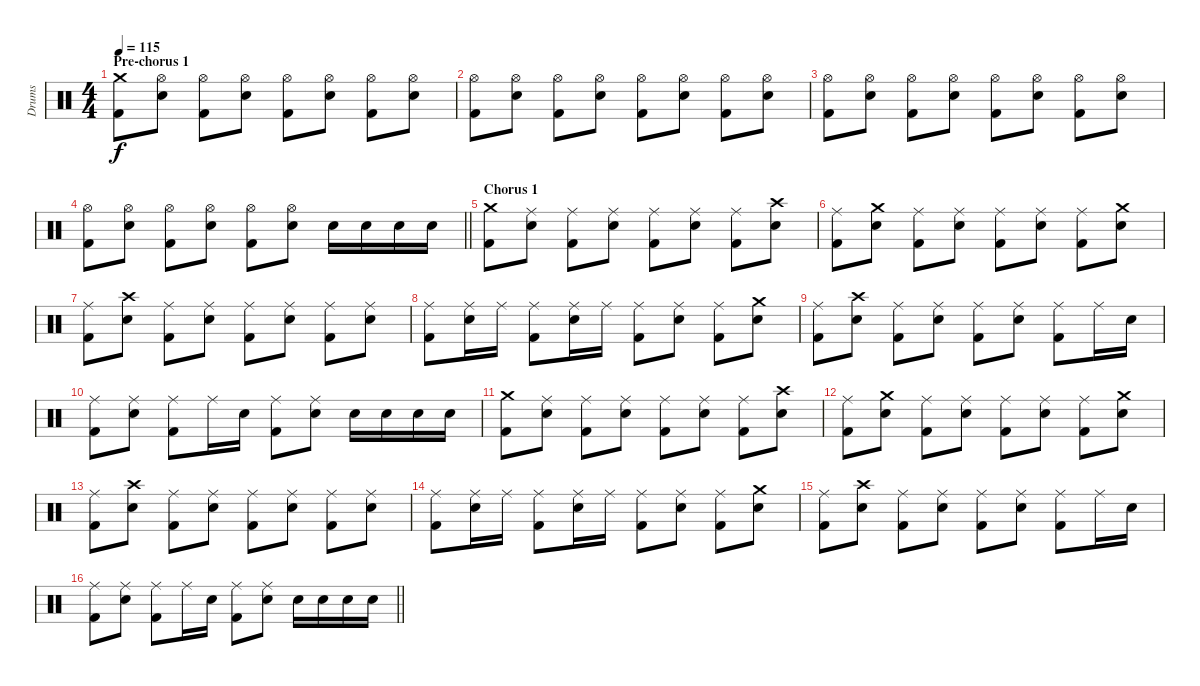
\track ("Drums" "Drums") {instrument percussion}
\staff {score}
\articulation defaults
\ts (4 4)
\section ("" "Pre-chorus 1")
\tempo 115
\clef neutral
\ks c
("Crash medium (hit)" "Kick (hit) 2").8{dy f} ("Hi-Hat (open)" "Snare (hit) 2").8 ("Hi-Hat (open)" "Kick (hit) 2").8 ("Hi-Hat (open)" "Snare (hit) 2").8 ("Hi-Hat (open)" "Kick (hit) 2").8 ("Hi-Hat (open)" "Snare (hit) 2").8 ("Hi-Hat (open)" "Kick (hit) 2").8 ("Hi-Hat (open)" "Snare (hit) 2").8 |
("Hi-Hat (open)" "Kick (hit) 2").8 ("Hi-Hat (open)" "Snare (hit) 2").8 ("Hi-Hat (open)" "Kick (hit) 2").8 ("Hi-Hat (open)" "Snare (hit) 2").8 ("Hi-Hat (open)" "Kick (hit) 2").8 ("Hi-Hat (open)" "Snare (hit) 2").8 ("Hi-Hat (open)" "Kick (hit) 2").8 ("Hi-Hat (open)" "Snare (hit) 2").8 |
("Hi-Hat (open)" "Kick (hit) 2").8 ("Hi-Hat (open)" "Snare (hit) 2").8 ("Hi-Hat (open)" "Kick (hit) 2").8 ("Hi-Hat (open)" "Snare (hit) 2").8 ("Hi-Hat (open)" "Kick (hit) 2").8 ("Hi-Hat (open)" "Snare (hit) 2").8 ("Hi-Hat (open)" "Kick (hit) 2").8 ("Hi-Hat (open)" "Snare (hit) 2").8 |
\barLineRight lightlight
("Hi-Hat (open)" "Kick (hit) 2").8 ("Hi-Hat (open)" "Snare (hit) 2").8 ("Hi-Hat (open)" "Kick (hit) 2").8 ("Hi-Hat (open)" "Snare (hit) 2").8 ("Hi-Hat (open)" "Kick (hit) 2").8 ("Hi-Hat (open)" "Snare (hit) 2").8 "Snare (hit) 2".16 "Snare (hit) 2".16 "Snare (hit) 2".16 "Snare (hit) 2".16 |
\section ("" "Chorus 1")
("Crash medium (hit)" "Kick (hit) 2").8 ("Ride (middle)" "Snare (hit) 2").8 ("Ride (middle)" "Kick (hit) 2").8 ("Ride (middle)" "Snare (hit) 2").8 ("Ride (middle)" "Kick (hit) 2").8 ("Ride (middle)" "Snare (hit) 2").8 ("Ride (middle)" "Kick (hit) 2").8 ("Crash high (hit)" "Snare (hit) 2").8 |
("Ride (middle)" "Kick (hit) 2").8 ("Crash medium (hit)" "Snare (hit) 2").8 ("Ride (middle)" "Kick (hit) 2").8 ("Ride (middle)" "Snare (hit) 2").8 ("Ride (middle)" "Kick (hit) 2").8 ("Ride (middle)" "Snare (hit) 2").8 ("Ride (middle)" "Kick (hit) 2").8 ("Crash medium (hit)" "Snare (hit) 2").8 |
("Ride (middle)" "Kick (hit) 2").8 ("Crash high (hit)" "Snare (hit) 2").8 ("Ride (middle)" "Kick (hit) 2").8 ("Ride (middle)" "Snare (hit) 2").8 ("Ride (middle)" "Kick (hit) 2").8 ("Ride (middle)" "Snare (hit) 2").8 ("Ride (middle)" "Kick (hit) 2").8 ("Ride (middle)" "Snare (hit) 2").8 |
("Ride (middle)" "Kick (hit) 2").8 ("Ride (middle)" "Snare (hit) 2").16 "Ride (middle)".16 ("Ride (middle)" "Kick (hit) 2").8 ("Ride (middle)" "Snare (hit) 2").16 "Ride (middle)".16 ("Ride (middle)" "Kick (hit) 2").8 ("Ride (middle)" "Snare (hit) 2").8 ("Ride (middle)" "Kick (hit) 2").8 ("Crash medium (hit)" "Snare (hit) 2").8 |
("Ride (middle)" "Kick (hit) 2").8 ("Crash high (hit)" "Snare (hit) 2").8 ("Ride (middle)" "Kick (hit) 2").8 ("Ride (middle)" "Snare (hit) 2").8 ("Ride (middle)" "Kick (hit) 2").8 ("Ride (middle)" "Snare (hit) 2").8 ("Ride (middle)" "Kick (hit) 2").8 "Ride (middle)".16 "Snare (hit) 2".16 |
("Ride (middle)" "Kick (hit) 2").8 ("Ride (middle)" "Snare (hit) 2").8 ("Ride (middle)" "Kick (hit) 2").8 "Ride (middle)".16 "Snare (hit) 2".16 ("Ride (middle)" "Kick (hit) 2").8 ("Ride (middle)" "Snare (hit) 2").8 "Snare (hit) 2".16 "Snare (hit) 2".16 "Snare (hit) 2".16 "Snare (hit) 2".16 |
("Crash medium (hit)" "Kick (hit) 2").8 ("Ride (middle)" "Snare (hit) 2").8 ("Ride (middle)" "Kick (hit) 2").8 ("Ride (middle)" "Snare (hit) 2").8 ("Ride (middle)" "Kick (hit) 2").8 ("Ride (middle)" "Snare (hit) 2").8 ("Ride (middle)" "Kick (hit) 2").8 ("Crash high (hit)" "Snare (hit) 2").8 |
("Ride (middle)" "Kick (hit) 2").8 ("Crash medium (hit)" "Snare (hit) 2").8 ("Ride (middle)" "Kick (hit) 2").8 ("Ride (middle)" "Snare (hit) 2").8 ("Ride (middle)" "Kick (hit) 2").8 ("Ride (middle)" "Snare (hit) 2").8 ("Ride (middle)" "Kick (hit) 2").8 ("Crash medium (hit)" "Snare (hit) 2").8 |
("Ride (middle)" "Kick (hit) 2").8 ("Crash high (hit)" "Snare (hit) 2").8 ("Ride (middle)" "Kick (hit) 2").8 ("Ride (middle)" "Snare (hit) 2").8 ("Ride (middle)" "Kick (hit) 2").8 ("Ride (middle)" "Snare (hit) 2").8 ("Ride (middle)" "Kick (hit) 2").8 ("Ride (middle)" "Snare (hit) 2").8 |
("Ride (middle)" "Kick (hit) 2").8 ("Ride (middle)" "Snare (hit) 2").16 "Ride (middle)".16 ("Ride (middle)" "Kick (hit) 2").8 ("Ride (middle)" "Snare (hit) 2").16 "Ride (middle)".16 ("Ride (middle)" "Kick (hit) 2").8 ("Ride (middle)" "Snare (hit) 2").8 ("Ride (middle)" "Kick (hit) 2").8 ("Crash medium (hit)" "Snare (hit) 2").8 |
("Ride (middle)" "Kick (hit) 2").8 ("Crash high (hit)" "Snare (hit) 2").8 ("Ride (middle)" "Kick (hit) 2").8 ("Ride (middle)" "Snare (hit) 2").8 ("Ride (middle)" "Kick (hit) 2").8 ("Ride (middle)" "Snare (hit) 2").8 ("Ride (middle)" "Kick (hit) 2").8 "Ride (middle)".16 "Snare (hit) 2".16 |
\barLineRight lightlight
("Ride (middle)" "Kick (hit) 2").8 ("Ride (middle)" "Snare (hit) 2").8 ("Ride (middle)" "Kick (hit) 2").8 "Ride (middle)".16 "Snare (hit) 2".16 ("Ride (middle)" "Kick (hit) 2").8 ("Ride (middle)" "Snare (hit) 2").8 "Snare (hit) 2".16 "Snare (hit) 2".16 "Snare (hit) 2".16 "Snare (hit) 2".16
